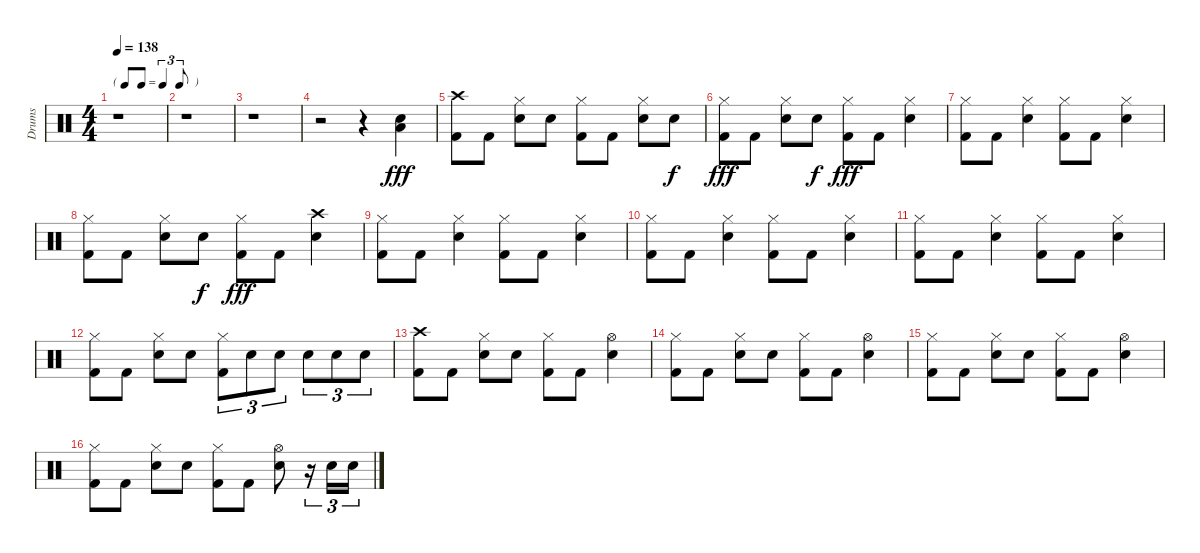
\track ("Drums" "Drums") {instrument percussion}
\staff {score}
\articulation defaults
\ts (4 4)
\tf triplet8th
\tempo 138
\clef neutral
\ks c
r.1{dy fff} |
r.1 |
r.1 |
r.2 r.4 ("Snare (hit) 2" "Low Floor Tom (hit)").4 |
("Crash high (hit)" "Kick (hit) 2").8 "Kick (hit) 2".8 ("Hi-Hat (closed)" "Snare (hit) 2").8 "Snare (hit) 2".8 ("Hi-Hat (closed)" "Kick (hit) 2").8 "Kick (hit) 2".8 ("Hi-Hat (closed)" "Snare (hit) 2").8 "Snare (hit) 2".8{dy f} |
("Hi-Hat (closed)" "Kick (hit) 2").8{dy fff} "Kick (hit) 2".8 ("Hi-Hat (closed)" "Snare (hit) 2").8 "Snare (hit) 2".8{dy f} ("Hi-Hat (closed)" "Kick (hit) 2").8{dy fff} "Kick (hit) 2".8 ("Hi-Hat (closed)" "Snare (hit) 2").4 |
("Hi-Hat (closed)" "Kick (hit) 2").8 "Kick (hit) 2".8 ("Hi-Hat (closed)" "Snare (hit) 2").4 ("Hi-Hat (closed)" "Kick (hit) 2").8 "Kick (hit) 2".8 ("Hi-Hat (closed)" "Snare (hit) 2").4 |
("Hi-Hat (closed)" "Kick (hit) 2").8 "Kick (hit) 2".8 ("Hi-Hat (closed)" "Snare (hit) 2").8 "Snare (hit) 2".8{dy f} ("Hi-Hat (closed)" "Kick (hit) 2").8{dy fff} "Kick (hit) 2".8 ("Crash high (hit)" "Snare (hit) 2").4 |
("Hi-Hat (closed)" "Kick (hit) 2").8 "Kick (hit) 2".8 ("Hi-Hat (closed)" "Snare (hit) 2").4 ("Hi-Hat (closed)" "Kick (hit) 2").8 "Kick (hit) 2".8 ("Hi-Hat (closed)" "Snare (hit) 2").4 |
("Hi-Hat (closed)" "Kick (hit) 2").8 "Kick (hit) 2".8 ("Hi-Hat (closed)" "Snare (hit) 2").4 ("Hi-Hat (closed)" "Kick (hit) 2").8 "Kick (hit) 2".8 ("Hi-Hat (closed)" "Snare (hit) 2").4 |
("Hi-Hat (closed)" "Kick (hit) 2").8 "Kick (hit) 2".8 ("Hi-Hat (closed)" "Snare (hit) 2").4 ("Hi-Hat (closed)" "Kick (hit) 2").8 "Kick (hit) 2".8 ("Hi-Hat (closed)" "Snare (hit) 2").4 |
("Hi-Hat (closed)" "Kick (hit) 2").8 "Kick (hit) 2".8 ("Hi-Hat (closed)" "Snare (hit) 2").8 "Snare (hit) 2".8 ("Hi-Hat (closed)" "Kick (hit) 2").8{tu (3 2)} "Snare (hit) 2".8{tu (3 2)} "Snare (hit) 2".8{tu (3 2)} "Snare (hit) 2".8{tu (3 2)} "Snare (hit) 2".8{tu (3 2)} "Snare (hit) 2".8{tu (3 2)} |
("Crash high (hit)" "Kick (hit) 2").8 "Kick (hit) 2".8 ("Hi-Hat (closed)" "Snare (hit) 2").8 "Snare (hit) 2".8 ("Hi-Hat (closed)" "Kick (hit) 2").8 "Kick (hit) 2".8 ("Hi-Hat (open)" "Snare (hit) 2").4 |
("Hi-Hat (closed)" "Kick (hit) 2").8 "Kick (hit) 2".8 ("Hi-Hat (closed)" "Snare (hit) 2").8 "Snare (hit) 2".8 ("Hi-Hat (closed)" "Kick (hit) 2").8 "Kick (hit) 2".8 ("Hi-Hat (open)" "Snare (hit) 2").4 |
("Hi-Hat (closed)" "Kick (hit) 2").8 "Kick (hit) 2".8 ("Hi-Hat (closed)" "Snare (hit) 2").8 "Snare (hit) 2".8 ("Hi-Hat (closed)" "Kick (hit) 2").8 "Kick (hit) 2".8 ("Hi-Hat (open)" "Snare (hit) 2").4 |
("Hi-Hat (closed)" "Kick (hit) 2").8 "Kick (hit) 2".8 ("Hi-Hat (closed)" "Snare (hit) 2").8 "Snare (hit) 2".8 ("Hi-Hat (closed)" "Kick (hit) 2").8 "Kick (hit) 2".8 ("Hi-Hat (open)" "Snare (hit) 2").8 r.16{tu (3 2)} "Snare (hit) 2".16{tu (3 2)} "Snare (hit) 2".16{tu (3 2)}
